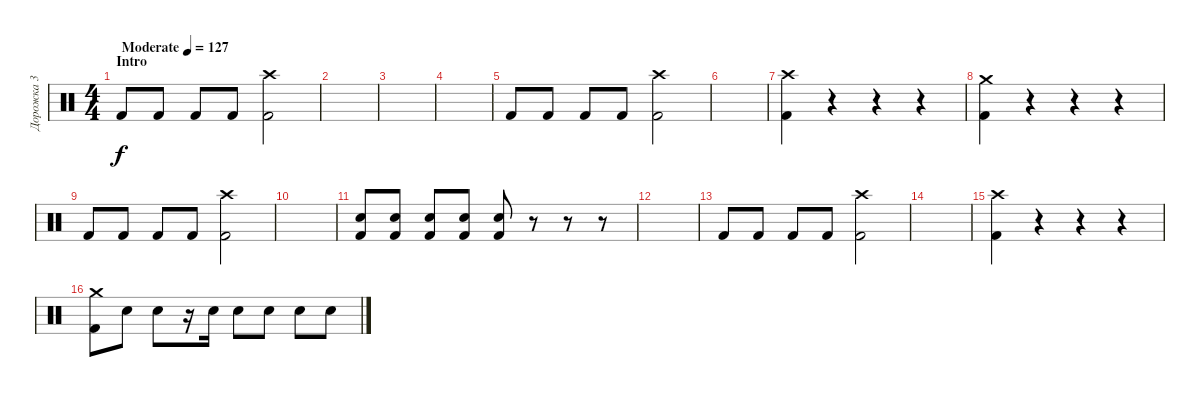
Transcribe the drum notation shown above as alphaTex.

\track ("Дорожка 3" "Дорожка 3") {instrument percussion}
\staff {score}
\articulation defaults
\ts (4 4)
\section ("" "Intro")
\tempo (127 "Moderate")
\clef neutral
\ks c "Kick (hit) 2".8{dy f} "Kick (hit) 2".8 "Kick (hit) 2".8 "Kick (hit) 2".8
("Crash high (hit)" "Kick (hit) 2").2 |
|
|
|
"Kick (hit) 2".8 "Kick (hit) 2".8 "Kick (hit) 2".8 "Kick (hit) 2".8 ("Crash high (hit)" "Kick (hit) 2").2 |
|
("Crash high (hit)" "Kick (hit) 2").4 r.4 r.4 r.4 |
("Crash medium (hit)" "Kick (hit) 2").4 r.4 r.4 r.4 |
"Kick (hit) 2".8 "Kick (hit) 2".8 "Kick (hit) 2".8 "Kick (hit) 2".8 ("Crash high (hit)" "Kick (hit) 2").2 |
|
("Electric Snare (hit)" "Kick (hit) 2").8 ("Electric Snare (hit)" "Kick (hit) 2").8 ("Electric Snare (hit)" "Kick (hit) 2").8 ("Electric Snare (hit)" "Kick (hit) 2").8 ("Electric Snare (hit)" "Kick (hit) 2").8 r.8 r.8 r.8 |
|
"Kick (hit) 2".8 "Kick (hit) 2".8 "Kick (hit) 2".8 "Kick (hit) 2".8 ("Crash high (hit)" "Kick (hit) 2").2 |
|
("Crash high (hit)" "Kick (hit) 2").4 r.4 r.4 r.4 |
("Crash medium (hit)" "Kick (hit) 2").8 "Electric Snare (hit)".8 "Electric Snare (hit)".8 r.16 "Electric Snare (hit)".16 "Electric Snare (hit)".8 "Electric Snare (hit)".8 "Electric Snare (hit)".8 "Electric Snare (hit)".8
